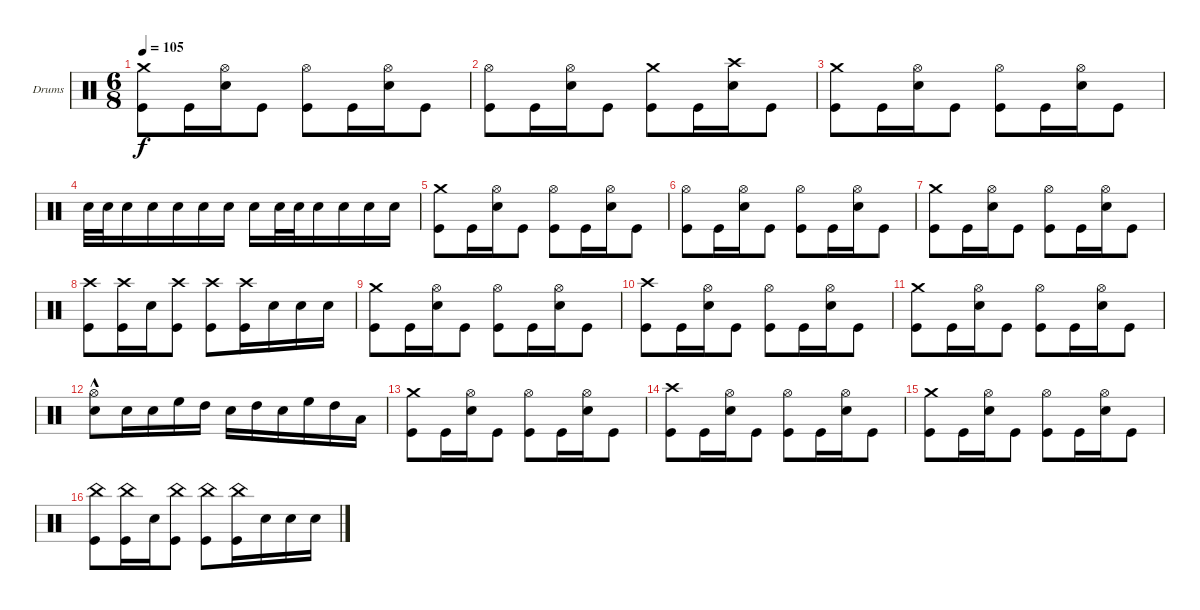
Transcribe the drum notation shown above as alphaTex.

\defaultSystemsLayout 4
\bracketExtendMode groupsimilarinstruments
\firstSystemTrackNameOrientation horizontal
\otherSystemsTrackNameOrientation horizontal
\track ("Stefan Schwarzmann" "Drums") {instrument percussion}
\staff {score}
\articulation defaults
\ts (6 8)
\tempo 105
\clef neutral
\ks c
("Crash medium (hit)" "Kick (hit)").8{dy f} "Kick (hit)".16 ("Hi-Hat (open)" "Snare (hit) 2").16 "Kick (hit)".8 ("Hi-Hat (open)" "Kick (hit)").8 "Kick (hit)".16 ("Hi-Hat (open)" "Snare (hit) 2").16 "Kick (hit)".8 |
("Hi-Hat (open)" "Kick (hit)").8 "Kick (hit)".16 ("Hi-Hat (open)" "Snare (hit) 2").16 "Kick (hit)".8 ("Crash medium (hit)" "Kick (hit)").8 "Kick (hit)".16 ("Crash high (hit)" "Snare (hit) 2").16 "Kick (hit)".8 |
("Crash medium (hit)" "Kick (hit)").8 "Kick (hit)".16 ("Hi-Hat (open)" "Snare (hit) 2").16 "Kick (hit)".8 ("Hi-Hat (open)" "Kick (hit)").8 "Kick (hit)".16 ("Hi-Hat (open)" "Snare (hit) 2").16 "Kick (hit)".8 |
"Snare (hit) 2".32 "Snare (hit) 2".32 "Snare (hit) 2".16 "Snare (hit) 2".16 "Snare (hit) 2".16 "Snare (hit) 2".16 "Snare (hit) 2".16 "Snare (hit) 2".16 "Snare (hit) 2".32 "Snare (hit) 2".32 "Snare (hit) 2".16 "Snare (hit) 2".16 "Snare (hit) 2".16 "Snare (hit) 2".16 |
("Crash medium (hit)" "Kick (hit)").8 "Kick (hit)".16 ("Hi-Hat (open)" "Snare (hit) 2").16 "Kick (hit)".8 ("Hi-Hat (open)" "Kick (hit)").8 "Kick (hit)".16 ("Hi-Hat (open)" "Snare (hit) 2").16 "Kick (hit)".8 |
("Hi-Hat (open)" "Kick (hit)").8 "Kick (hit)".16 ("Hi-Hat (open)" "Snare (hit) 2").16 "Kick (hit)".8 ("Hi-Hat (open)" "Kick (hit)").8 "Kick (hit)".16 ("Hi-Hat (open)" "Snare (hit) 2").16 "Kick (hit)".8 |
("Crash medium (hit)" "Kick (hit)").8 "Kick (hit)".16 ("Hi-Hat (open)" "Snare (hit) 2").16 "Kick (hit)".8 ("Hi-Hat (open)" "Kick (hit)").8 "Kick (hit)".16 ("Hi-Hat (open)" "Snare (hit) 2").16 "Kick (hit)".8 |
("Crash high (hit)" "Kick (hit)").8 ("Crash high (hit)" "Kick (hit)").16 "Snare (hit) 2".16 ("Crash high (hit)" "Kick (hit)").8 ("Crash high (hit)" "Kick (hit)").8 ("Crash high (hit)" "Kick (hit)").16 "Snare (hit) 2".16 "Snare (hit) 2".16 "Snare (hit) 2".16 |
("Crash medium (hit)" "Kick (hit)").8 "Kick (hit)".16 ("Hi-Hat (open)" "Snare (hit) 2").16 "Kick (hit)".8 ("Hi-Hat (open)" "Kick (hit)").8 "Kick (hit)".16 ("Hi-Hat (open)" "Snare (hit) 2").16 "Kick (hit)".8 |
("Crash high (hit)" "Kick (hit)").8 "Kick (hit)".16 ("Hi-Hat (open)" "Snare (hit) 2").16 "Kick (hit)".8 ("Hi-Hat (open)" "Kick (hit)").8 "Kick (hit)".16 ("Hi-Hat (open)" "Snare (hit) 2").16 "Kick (hit)".8 |
("Crash medium (hit)" "Kick (hit)").8 "Kick (hit)".16 ("Hi-Hat (open)" "Snare (hit) 2").16 "Kick (hit)".8 ("Hi-Hat (open)" "Kick (hit)").8 "Kick (hit)".16 ("Hi-Hat (open)" "Snare (hit) 2").16 "Kick (hit)".8 |
("Hi-Hat (open)"{hac} "Snare (hit) 2").8 "Snare (hit) 2".16 "Snare (hit) 2".16 "High Floor Tom (hit)".16 "High Tom (hit)".16 "Snare (hit) 2".16 "High Tom (hit)".16 "Snare (hit) 2".16 "High Floor Tom (hit)".16 "High Tom (hit)".16 "Low Tom (hit)".16 |
("Crash medium (hit)" "Kick (hit)").8 "Kick (hit)".16 ("Hi-Hat (open)" "Snare (hit) 2").16 "Kick (hit)".8 ("Hi-Hat (open)" "Kick (hit)").8 "Kick (hit)".16 ("Hi-Hat (open)" "Snare (hit) 2").16 "Kick (hit)".8 |
("Crash high (hit)" "Kick (hit)").8 "Kick (hit)".16 ("Hi-Hat (open)" "Snare (hit) 2").16 "Kick (hit)".8 ("Hi-Hat (open)" "Kick (hit)").8 "Kick (hit)".16 ("Hi-Hat (open)" "Snare (hit) 2").16 "Kick (hit)".8 |
("Crash medium (hit)" "Kick (hit)").8 "Kick (hit)".16 ("Hi-Hat (open)" "Snare (hit) 2").16 "Kick (hit)".8 ("Hi-Hat (open)" "Kick (hit)").8 "Kick (hit)".16 ("Hi-Hat (open)" "Snare (hit) 2").16 "Kick (hit)".8 |
("China (hit)" "Kick (hit)").8 ("China (hit)" "Kick (hit)").16 "Snare (hit) 2".16 ("China (hit)" "Kick (hit)").8 ("China (hit)" "Kick (hit)").8 ("China (hit)" "Kick (hit)").16 "Snare (hit) 2".16 "Snare (hit) 2".16 "Snare (hit) 2".16
